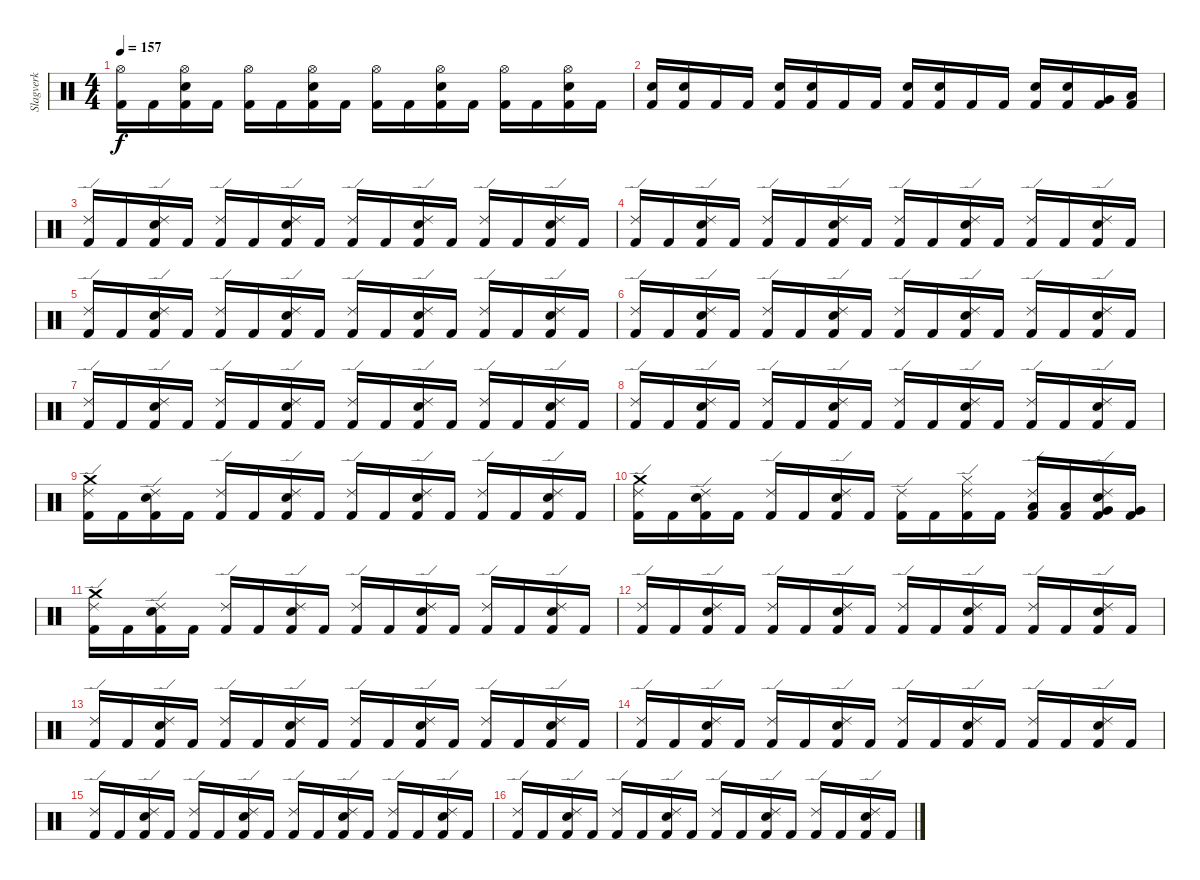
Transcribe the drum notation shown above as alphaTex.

\track ("Slagverk" "Slagverk") {instrument percussion}
\staff {score}
\articulation defaults
\ts (4 4)
\tempo 157
\clef neutral
\ks c
("Hi-Hat (open)" "Kick (hit) 2").16{dy f} "Kick (hit) 2".16 ("Snare (hit) 2" "Hi-Hat (open)" "Kick (hit) 2").16 "Kick (hit) 2".16 ("Hi-Hat (open)" "Kick (hit) 2").16 "Kick (hit) 2".16 ("Snare (hit) 2" "Hi-Hat (open)" "Kick (hit) 2").16 "Kick (hit) 2".16 ("Hi-Hat (open)" "Kick (hit) 2").16 "Kick (hit) 2".16 ("Snare (hit) 2" "Hi-Hat (open)" "Kick (hit) 2").16 "Kick (hit) 2".16 ("Hi-Hat (open)" "Kick (hit) 2").16 "Kick (hit) 2".16 ("Snare (hit) 2" "Hi-Hat (open)" "Kick (hit) 2").16 "Kick (hit) 2".16 |
("Electric Snare (hit)" "Kick (hit) 2").16 ("Electric Snare (hit)" "Kick (hit) 2").16 "Kick (hit) 2".16 "Kick (hit) 2".16 ("Electric Snare (hit)" "Kick (hit) 2").16 ("Electric Snare (hit)" "Kick (hit) 2").16 "Kick (hit) 2".16 "Kick (hit) 2".16 ("Electric Snare (hit)" "Kick (hit) 2").16 ("Electric Snare (hit)" "Kick (hit) 2").16 "Kick (hit) 2".16 "Kick (hit) 2".16 ("Electric Snare (hit)" "Kick (hit) 2").16 ("Electric Snare (hit)" "Kick (hit) 2").16 ("Very Low Tom (hit)" "Kick (hit) 2").16 ("Low Floor Tom (hit)" "Kick (hit) 2").16 |
("Ride (edge) 2" "Kick (hit) 2").16 "Kick (hit) 2".16 ("Snare (hit) 2" "Ride (edge) 2" "Kick (hit) 2").16 "Kick (hit) 2".16 ("Ride (edge) 2" "Kick (hit) 2").16 "Kick (hit) 2".16 ("Snare (hit) 2" "Ride (edge) 2" "Kick (hit) 2").16 "Kick (hit) 2".16 ("Ride (edge) 2" "Kick (hit) 2").16 "Kick (hit) 2".16 ("Snare (hit) 2" "Ride (edge) 2" "Kick (hit) 2").16 "Kick (hit) 2".16 ("Ride (edge) 2" "Kick (hit) 2").16 "Kick (hit) 2".16 ("Snare (hit) 2" "Ride (edge) 2" "Kick (hit) 2").16 "Kick (hit) 2".16 |
("Ride (edge) 2" "Kick (hit) 2").16 "Kick (hit) 2".16 ("Snare (hit) 2" "Ride (edge) 2" "Kick (hit) 2").16 "Kick (hit) 2".16 ("Ride (edge) 2" "Kick (hit) 2").16 "Kick (hit) 2".16 ("Snare (hit) 2" "Ride (edge) 2" "Kick (hit) 2").16 "Kick (hit) 2".16 ("Ride (edge) 2" "Kick (hit) 2").16 "Kick (hit) 2".16 ("Snare (hit) 2" "Ride (edge) 2" "Kick (hit) 2").16 "Kick (hit) 2".16 ("Ride (edge) 2" "Kick (hit) 2").16 "Kick (hit) 2".16 ("Snare (hit) 2" "Ride (edge) 2" "Kick (hit) 2").16 "Kick (hit) 2".16 |
("Ride (edge) 2" "Kick (hit) 2").16 "Kick (hit) 2".16 ("Snare (hit) 2" "Ride (edge) 2" "Kick (hit) 2").16 "Kick (hit) 2".16 ("Ride (edge) 2" "Kick (hit) 2").16 "Kick (hit) 2".16 ("Snare (hit) 2" "Ride (edge) 2" "Kick (hit) 2").16 "Kick (hit) 2".16 ("Ride (edge) 2" "Kick (hit) 2").16 "Kick (hit) 2".16 ("Snare (hit) 2" "Ride (edge) 2" "Kick (hit) 2").16 "Kick (hit) 2".16 ("Ride (edge) 2" "Kick (hit) 2").16 "Kick (hit) 2".16 ("Snare (hit) 2" "Ride (edge) 2" "Kick (hit) 2").16 "Kick (hit) 2".16 |
("Ride (edge) 2" "Kick (hit) 2").16 "Kick (hit) 2".16 ("Snare (hit) 2" "Ride (edge) 2" "Kick (hit) 2").16 "Kick (hit) 2".16 ("Ride (edge) 2" "Kick (hit) 2").16 "Kick (hit) 2".16 ("Snare (hit) 2" "Ride (edge) 2" "Kick (hit) 2").16 "Kick (hit) 2".16 ("Ride (edge) 2" "Kick (hit) 2").16 "Kick (hit) 2".16 ("Snare (hit) 2" "Ride (edge) 2" "Kick (hit) 2").16 "Kick (hit) 2".16 ("Ride (edge) 2" "Kick (hit) 2").16 "Kick (hit) 2".16 ("Snare (hit) 2" "Ride (edge) 2" "Kick (hit) 2").16 "Kick (hit) 2".16 |
("Ride (edge) 2" "Kick (hit) 2").16 "Kick (hit) 2".16 ("Snare (hit) 2" "Ride (edge) 2" "Kick (hit) 2").16 "Kick (hit) 2".16 ("Ride (edge) 2" "Kick (hit) 2").16 "Kick (hit) 2".16 ("Snare (hit) 2" "Ride (edge) 2" "Kick (hit) 2").16 "Kick (hit) 2".16 ("Ride (edge) 2" "Kick (hit) 2").16 "Kick (hit) 2".16 ("Snare (hit) 2" "Ride (edge) 2" "Kick (hit) 2").16 "Kick (hit) 2".16 ("Ride (edge) 2" "Kick (hit) 2").16 "Kick (hit) 2".16 ("Snare (hit) 2" "Ride (edge) 2" "Kick (hit) 2").16 "Kick (hit) 2".16 |
("Ride (edge) 2" "Kick (hit) 2").16 "Kick (hit) 2".16 ("Snare (hit) 2" "Ride (edge) 2" "Kick (hit) 2").16 "Kick (hit) 2".16 ("Ride (edge) 2" "Kick (hit) 2").16 "Kick (hit) 2".16 ("Snare (hit) 2" "Ride (edge) 2" "Kick (hit) 2").16 "Kick (hit) 2".16 ("Ride (edge) 2" "Kick (hit) 2").16 "Kick (hit) 2".16 ("Snare (hit) 2" "Ride (edge) 2" "Kick (hit) 2").16 "Kick (hit) 2".16 ("Ride (edge) 2" "Kick (hit) 2").16 "Kick (hit) 2".16 ("Snare (hit) 2" "Ride (edge) 2" "Kick (hit) 2").16 "Kick (hit) 2".16 |
("Crash medium (hit)" "Ride (edge) 2" "Kick (hit) 2").16 "Kick (hit) 2".16 ("Snare (hit) 2" "Ride (edge) 2" "Kick (hit) 2").16 "Kick (hit) 2".16 ("Ride (edge) 2" "Kick (hit) 2").16 "Kick (hit) 2".16 ("Snare (hit) 2" "Ride (edge) 2" "Kick (hit) 2").16 "Kick (hit) 2".16 ("Ride (edge) 2" "Kick (hit) 2").16 "Kick (hit) 2".16 ("Snare (hit) 2" "Ride (edge) 2" "Kick (hit) 2").16 "Kick (hit) 2".16 ("Ride (edge) 2" "Kick (hit) 2").16 "Kick (hit) 2".16 ("Snare (hit) 2" "Ride (edge) 2" "Kick (hit) 2").16 "Kick (hit) 2".16 |
("Crash medium (hit)" "Ride (edge) 2" "Kick (hit) 2").16 "Kick (hit) 2".16 ("Snare (hit) 2" "Ride (edge) 2" "Kick (hit) 2").16 "Kick (hit) 2".16 ("Ride (edge) 2" "Kick (hit) 2").16 "Kick (hit) 2".16 ("Snare (hit) 2" "Ride (edge) 2" "Kick (hit) 2").16 "Kick (hit) 2".16 ("Ride (edge) 2" "Kick (hit) 2").16 "Kick (hit) 2".16 ("Kick (hit) 2" "Hi-Hat (closed)" "Ride (edge) 2").16 "Kick (hit) 2".16 ("Low Tom (hit)" "Ride (edge) 2" "Kick (hit) 2").16 ("Low Tom (hit)" "Kick (hit) 2").16 ("Very Low Tom (hit)" "Snare (hit) 2" "Ride (edge) 2" "Kick (hit) 2").16 ("Very Low Tom (hit)" "Kick (hit) 2").16 |
("Crash medium (hit)" "Ride (edge) 2" "Kick (hit) 2").16 "Kick (hit) 2".16 ("Snare (hit) 2" "Ride (edge) 2" "Kick (hit) 2").16 "Kick (hit) 2".16 ("Ride (edge) 2" "Kick (hit) 2").16 "Kick (hit) 2".16 ("Snare (hit) 2" "Ride (edge) 2" "Kick (hit) 2").16 "Kick (hit) 2".16 ("Ride (edge) 2" "Kick (hit) 2").16 "Kick (hit) 2".16 ("Snare (hit) 2" "Ride (edge) 2" "Kick (hit) 2").16 "Kick (hit) 2".16 ("Ride (edge) 2" "Kick (hit) 2").16 "Kick (hit) 2".16 ("Snare (hit) 2" "Ride (edge) 2" "Kick (hit) 2").16 "Kick (hit) 2".16 |
("Ride (edge) 2" "Kick (hit) 2").16 "Kick (hit) 2".16 ("Snare (hit) 2" "Ride (edge) 2" "Kick (hit) 2").16 "Kick (hit) 2".16 ("Ride (edge) 2" "Kick (hit) 2").16 "Kick (hit) 2".16 ("Snare (hit) 2" "Ride (edge) 2" "Kick (hit) 2").16 "Kick (hit) 2".16 ("Ride (edge) 2" "Kick (hit) 2").16 "Kick (hit) 2".16 ("Snare (hit) 2" "Ride (edge) 2" "Kick (hit) 2").16 "Kick (hit) 2".16 ("Ride (edge) 2" "Kick (hit) 2").16 "Kick (hit) 2".16 ("Snare (hit) 2" "Ride (edge) 2" "Kick (hit) 2").16 "Kick (hit) 2".16 |
("Ride (edge) 2" "Kick (hit) 2").16 "Kick (hit) 2".16 ("Snare (hit) 2" "Ride (edge) 2" "Kick (hit) 2").16 "Kick (hit) 2".16 ("Ride (edge) 2" "Kick (hit) 2").16 "Kick (hit) 2".16 ("Snare (hit) 2" "Ride (edge) 2" "Kick (hit) 2").16 "Kick (hit) 2".16 ("Ride (edge) 2" "Kick (hit) 2").16 "Kick (hit) 2".16 ("Snare (hit) 2" "Ride (edge) 2" "Kick (hit) 2").16 "Kick (hit) 2".16 ("Ride (edge) 2" "Kick (hit) 2").16 "Kick (hit) 2".16 ("Snare (hit) 2" "Ride (edge) 2" "Kick (hit) 2").16 "Kick (hit) 2".16 |
("Ride (edge) 2" "Kick (hit) 2").16 "Kick (hit) 2".16 ("Snare (hit) 2" "Ride (edge) 2" "Kick (hit) 2").16 "Kick (hit) 2".16 ("Ride (edge) 2" "Kick (hit) 2").16 "Kick (hit) 2".16 ("Snare (hit) 2" "Ride (edge) 2" "Kick (hit) 2").16 "Kick (hit) 2".16 ("Ride (edge) 2" "Kick (hit) 2").16 "Kick (hit) 2".16 ("Snare (hit) 2" "Ride (edge) 2" "Kick (hit) 2").16 "Kick (hit) 2".16 ("Ride (edge) 2" "Kick (hit) 2").16 "Kick (hit) 2".16 ("Snare (hit) 2" "Ride (edge) 2" "Kick (hit) 2").16 "Kick (hit) 2".16 |
("Ride (edge) 2" "Kick (hit) 2").16 "Kick (hit) 2".16 ("Snare (hit) 2" "Ride (edge) 2" "Kick (hit) 2").16 "Kick (hit) 2".16 ("Ride (edge) 2" "Kick (hit) 2").16 "Kick (hit) 2".16 ("Snare (hit) 2" "Ride (edge) 2" "Kick (hit) 2").16 "Kick (hit) 2".16 ("Ride (edge) 2" "Kick (hit) 2").16 "Kick (hit) 2".16 ("Snare (hit) 2" "Ride (edge) 2" "Kick (hit) 2").16 "Kick (hit) 2".16 ("Ride (edge) 2" "Kick (hit) 2").16 "Kick (hit) 2".16 ("Snare (hit) 2" "Ride (edge) 2" "Kick (hit) 2").16 "Kick (hit) 2".16 |
("Ride (edge) 2" "Kick (hit) 2").16 "Kick (hit) 2".16 ("Snare (hit) 2" "Ride (edge) 2" "Kick (hit) 2").16 "Kick (hit) 2".16 ("Ride (edge) 2" "Kick (hit) 2").16 "Kick (hit) 2".16 ("Snare (hit) 2" "Ride (edge) 2" "Kick (hit) 2").16 "Kick (hit) 2".16 ("Ride (edge) 2" "Kick (hit) 2").16 "Kick (hit) 2".16 ("Snare (hit) 2" "Ride (edge) 2" "Kick (hit) 2").16 "Kick (hit) 2".16 ("Ride (edge) 2" "Kick (hit) 2").16 "Kick (hit) 2".16 ("Snare (hit) 2" "Ride (edge) 2" "Kick (hit) 2").16 "Kick (hit) 2".16
